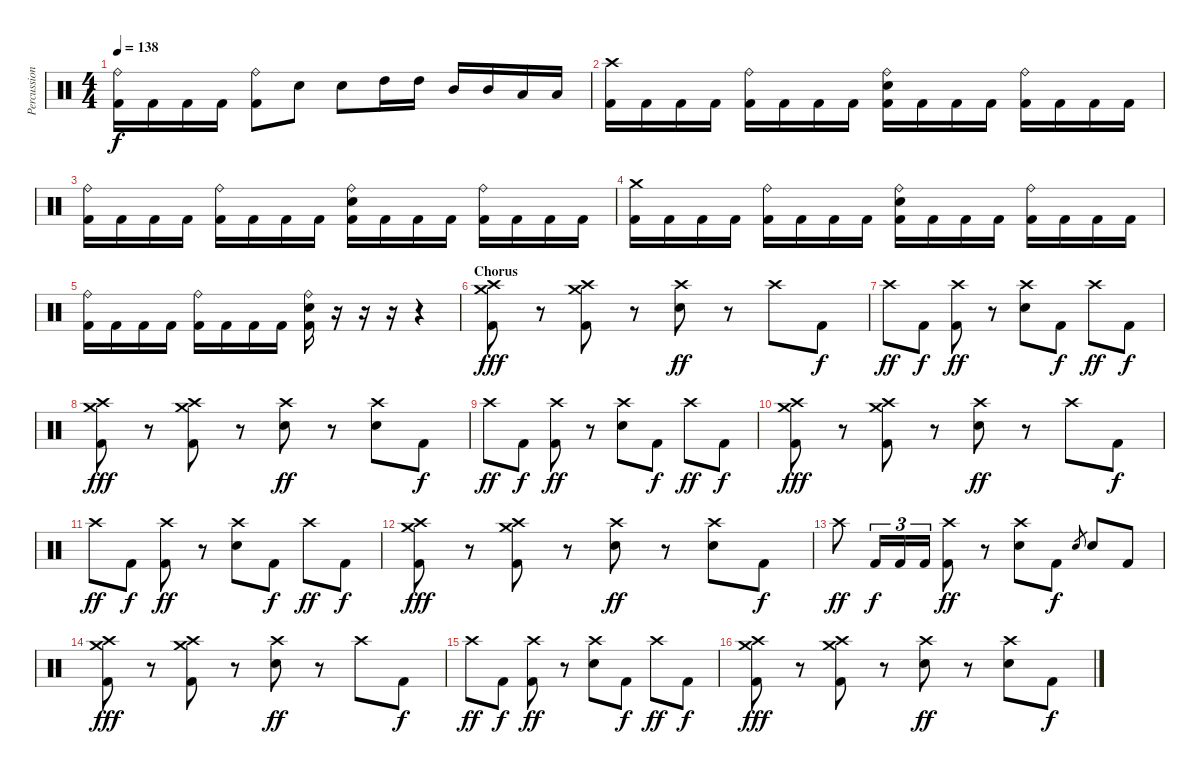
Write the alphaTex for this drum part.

\track ("Percussion" "Percussion") {instrument percussion}
\staff {score}
\articulation defaults
\ts (4 4)
\tempo 138
\clef neutral
\ks c
("Ride (bell)" "Kick (hit) 2").16{dy f} "Kick (hit) 2".16 "Kick (hit) 2".16 "Kick (hit) 2".16 ("Ride (bell)" "Kick (hit) 2").8 "Electric Snare (hit)".8 "Electric Snare (hit)".8 "High Tom (hit)".16 "High Tom (hit)".16 "Mid Tom (hit)".16 "Mid Tom (hit)".16 "Low Tom (hit)".16 "Low Tom (hit)".16 |
("Crash high (hit)" "Kick (hit) 2").16 "Kick (hit) 2".16 "Kick (hit) 2".16 "Kick (hit) 2".16 ("Ride (bell)" "Kick (hit) 2").16 "Kick (hit) 2".16 "Kick (hit) 2".16 "Kick (hit) 2".16 ("Ride (bell)" "Electric Snare (hit)" "Kick (hit) 2").16 "Kick (hit) 2".16 "Kick (hit) 2".16 "Kick (hit) 2".16 ("Ride (bell)" "Kick (hit) 2").16 "Kick (hit) 2".16 "Kick (hit) 2".16 "Kick (hit) 2".16 |
("Ride (bell)" "Kick (hit) 2").16 "Kick (hit) 2".16 "Kick (hit) 2".16 "Kick (hit) 2".16 ("Ride (bell)" "Kick (hit) 2").16 "Kick (hit) 2".16 "Kick (hit) 2".16 "Kick (hit) 2".16 ("Ride (bell)" "Electric Snare (hit)" "Kick (hit) 2").16 "Kick (hit) 2".16 "Kick (hit) 2".16 "Kick (hit) 2".16 ("Ride (bell)" "Kick (hit) 2").16 "Kick (hit) 2".16 "Kick (hit) 2".16 "Kick (hit) 2".16 |
("Crash medium (hit)" "Kick (hit) 2").16 "Kick (hit) 2".16 "Kick (hit) 2".16 "Kick (hit) 2".16 ("Ride (bell)" "Kick (hit) 2").16 "Kick (hit) 2".16 "Kick (hit) 2".16 "Kick (hit) 2".16 ("Ride (bell)" "Electric Snare (hit)" "Kick (hit) 2").16 "Kick (hit) 2".16 "Kick (hit) 2".16 "Kick (hit) 2".16 ("Ride (bell)" "Kick (hit) 2").16 "Kick (hit) 2".16 "Kick (hit) 2".16 "Kick (hit) 2".16 |
("Ride (bell)" "Kick (hit) 2").16 "Kick (hit) 2".16 "Kick (hit) 2".16 "Kick (hit) 2".16 ("Ride (bell)" "Kick (hit) 2").16 "Kick (hit) 2".16 "Kick (hit) 2".16 "Kick (hit) 2".16 ("Ride (bell)" "Electric Snare (hit)" "Kick (hit) 2").16 r.16 r.16 r.16 r.4 |
\section ("" "Chorus")
("Crash high (hit)" "Crash medium (hit)" "Kick (hit) 2").8{dy fff} r.8 ("Crash high (hit)" "Crash medium (hit)" "Kick (hit) 2").8 r.8 ("Crash high (hit)" "Electric Snare (hit)").8{dy ff} r.8 "Crash high (hit)".8 "Kick (hit) 2".8{dy f} |
"Crash high (hit)".8{dy ff} "Kick (hit) 2".8{dy f} ("Crash high (hit)" "Kick (hit) 2").8{dy ff} r.8 ("Crash high (hit)" "Electric Snare (hit)").8 "Kick (hit) 2".8{dy f} "Crash high (hit)".8{dy ff} "Kick (hit) 2".8{dy f} |
("Crash high (hit)" "Crash medium (hit)" "Kick (hit) 2").8{dy fff} r.8 ("Crash high (hit)" "Crash medium (hit)" "Kick (hit) 2").8 r.8 ("Crash high (hit)" "Electric Snare (hit)").8{dy ff} r.8 ("Crash high (hit)" "Electric Snare (hit)").8 "Kick (hit) 2".8{dy f} |
"Crash high (hit)".8{dy ff} "Kick (hit) 2".8{dy f} ("Crash high (hit)" "Kick (hit) 2").8{dy ff} r.8 ("Crash high (hit)" "Electric Snare (hit)").8 "Kick (hit) 2".8{dy f} "Crash high (hit)".8{dy ff} "Kick (hit) 2".8{dy f} |
("Crash high (hit)" "Crash medium (hit)" "Kick (hit) 2").8{dy fff} r.8 ("Crash high (hit)" "Crash medium (hit)" "Kick (hit) 2").8 r.8 ("Crash high (hit)" "Electric Snare (hit)").8{dy ff} r.8 "Crash high (hit)".8 "Kick (hit) 2".8{dy f} |
"Crash high (hit)".8{dy ff} "Kick (hit) 2".8{dy f} ("Crash high (hit)" "Kick (hit) 2").8{dy ff} r.8 ("Crash high (hit)" "Electric Snare (hit)").8 "Kick (hit) 2".8{dy f} "Crash high (hit)".8{dy ff} "Kick (hit) 2".8{dy f} |
("Crash high (hit)" "Crash medium (hit)" "Kick (hit) 2").8{dy fff} r.8 ("Crash high (hit)" "Crash medium (hit)" "Kick (hit) 2").8 r.8 ("Crash high (hit)" "Electric Snare (hit)").8{dy ff} r.8 ("Crash high (hit)" "Electric Snare (hit)").8 "Kick (hit) 2".8{dy f} |
"Crash high (hit)".8{dy ff} "Kick (hit) 2".16{tu (3 2) dy f} "Kick (hit) 2".16{tu (3 2)} "Kick (hit) 2".16{tu (3 2)} ("Crash high (hit)" "Kick (hit) 2").8{dy ff} r.8 ("Crash high (hit)" "Electric Snare (hit)").8 "Kick (hit) 2".8{dy f} "Electric Snare (hit)".8{gr} "Electric Snare (hit)".8 "Kick (hit) 2".8 |
("Crash high (hit)" "Crash medium (hit)" "Kick (hit) 2").8{dy fff} r.8 ("Crash high (hit)" "Crash medium (hit)" "Kick (hit) 2").8 r.8 ("Crash high (hit)" "Electric Snare (hit)").8{dy ff} r.8 "Crash high (hit)".8 "Kick (hit) 2".8{dy f} |
"Crash high (hit)".8{dy ff} "Kick (hit) 2".8{dy f} ("Crash high (hit)" "Kick (hit) 2").8{dy ff} r.8 ("Crash high (hit)" "Electric Snare (hit)").8 "Kick (hit) 2".8{dy f} "Crash high (hit)".8{dy ff} "Kick (hit) 2".8{dy f} |
("Crash high (hit)" "Crash medium (hit)" "Kick (hit) 2").8{dy fff} r.8 ("Crash high (hit)" "Crash medium (hit)" "Kick (hit) 2").8 r.8 ("Crash high (hit)" "Electric Snare (hit)").8{dy ff} r.8 ("Crash high (hit)" "Electric Snare (hit)").8 "Kick (hit) 2".8{dy f}
